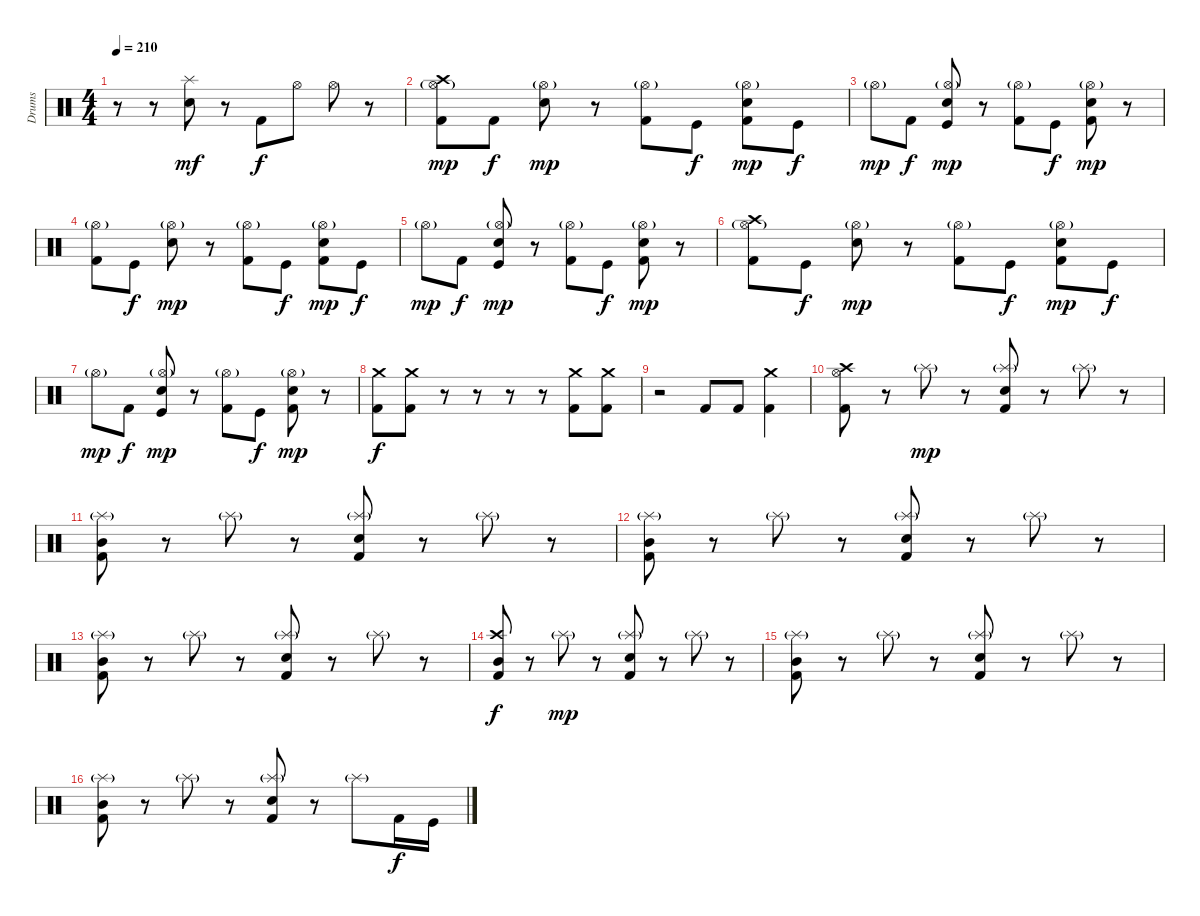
\track ("Drums" "Drums") {instrument percussion}
\staff {score}
\articulation defaults
\ts (4 4)
\tempo 210
\clef neutral
\ks c
r.8{dy f} r.8 ("Electric Snare (hit)" "Splash (hit)").8{dy mf} r.8 "Kick (hit) 2".8{dy f} "Hi-Hat (open)".8 "Hi-Hat (open)".8 r.8 |
("Kick (hit) 2" "Crash high (hit)" "Hi-Hat (open)"{g}).8{dy mp} "Kick (hit) 2".8{dy f} ("Electric Snare (hit)" "Hi-Hat (open)"{g}).8{dy mp} r.8 ("Kick (hit) 2" "Hi-Hat (open)"{g}).8 "Kick (hit)".8{dy f} ("Kick (hit) 2" "Electric Snare (hit)" "Hi-Hat (open)"{g}).8{dy mp} "Kick (hit)".8{dy f} |
"Hi-Hat (open)"{g}.8{dy mp} "Kick (hit) 2".8{dy f} ("Kick (hit)" "Electric Snare (hit)" "Hi-Hat (open)"{g}).8{dy mp} r.8 ("Kick (hit) 2" "Hi-Hat (open)"{g}).8 "Kick (hit)".8{dy f} ("Kick (hit) 2" "Electric Snare (hit)" "Hi-Hat (open)"{g}).8{dy mp} r.8 |
("Kick (hit) 2" "Hi-Hat (open)"{g}).8 "Kick (hit)".8{dy f} ("Electric Snare (hit)" "Hi-Hat (open)"{g}).8{dy mp} r.8 ("Kick (hit) 2" "Hi-Hat (open)"{g}).8 "Kick (hit)".8{dy f} ("Kick (hit) 2" "Electric Snare (hit)" "Hi-Hat (open)"{g}).8{dy mp} "Kick (hit)".8{dy f} |
"Hi-Hat (open)"{g}.8{dy mp} "Kick (hit) 2".8{dy f} ("Kick (hit)" "Electric Snare (hit)" "Hi-Hat (open)"{g}).8{dy mp} r.8 ("Kick (hit) 2" "Hi-Hat (open)"{g}).8 "Kick (hit)".8{dy f} ("Kick (hit) 2" "Electric Snare (hit)" "Hi-Hat (open)"{g}).8{dy mp} r.8 |
("Kick (hit) 2" "Crash high (hit)" "Hi-Hat (open)"{g}).8 "Kick (hit)".8{dy f} ("Electric Snare (hit)" "Hi-Hat (open)"{g}).8{dy mp} r.8 ("Kick (hit) 2" "Hi-Hat (open)"{g}).8 "Kick (hit)".8{dy f} ("Kick (hit) 2" "Electric Snare (hit)" "Hi-Hat (open)"{g}).8{dy mp} "Kick (hit)".8{dy f} |
"Hi-Hat (open)"{g}.8{dy mp} "Kick (hit) 2".8{dy f} ("Kick (hit)" "Electric Snare (hit)" "Hi-Hat (open)"{g}).8{dy mp} r.8 ("Kick (hit) 2" "Hi-Hat (open)"{g}).8 "Kick (hit)".8{dy f} ("Kick (hit) 2" "Electric Snare (hit)" "Hi-Hat (open)"{g}).8{dy mp} r.8 |
("Kick (hit) 2" "Crash medium (hit)").8{dy f} ("Kick (hit) 2" "Crash medium (hit)").8 r.8 r.8 r.8 r.8 ("Kick (hit) 2" "Crash medium (hit)").8 ("Kick (hit) 2" "Crash medium (hit)").8 |
r.2 "Kick (hit) 2".8 "Kick (hit) 2".8 ("Crash medium (hit)" "Kick (hit) 2").4 |
("Kick (hit) 2" "Hi-Hat (open)" "Crash high (hit)").8 r.8 "Splash (hit)"{g}.8{dy mp} r.8 ("Kick (hit) 2" "Electric Snare (hit)" "Splash (hit)"{g}).8 r.8 "Splash (hit)"{g}.8 r.8 |
("Kick (hit) 2" "Mid Tom (hit)" "Splash (hit)"{g}).8 r.8 "Splash (hit)"{g}.8 r.8 ("Kick (hit) 2" "Electric Snare (hit)" "Splash (hit)"{g}).8 r.8 "Splash (hit)"{g}.8 r.8 |
("Kick (hit) 2" "Mid Tom (hit)" "Splash (hit)"{g}).8 r.8 "Splash (hit)"{g}.8 r.8 ("Kick (hit) 2" "Electric Snare (hit)" "Splash (hit)"{g}).8 r.8 "Splash (hit)"{g}.8 r.8 |
("Kick (hit) 2" "Mid Tom (hit)" "Splash (hit)"{g}).8 r.8 "Splash (hit)"{g}.8 r.8 ("Kick (hit) 2" "Electric Snare (hit)" "Splash (hit)"{g}).8 r.8 "Splash (hit)"{g}.8 r.8 |
("Kick (hit) 2" "Mid Tom (hit)" "Crash high (hit)").8{dy f} r.8 "Splash (hit)"{g}.8{dy mp} r.8 ("Kick (hit) 2" "Electric Snare (hit)" "Splash (hit)"{g}).8 r.8 "Splash (hit)"{g}.8 r.8 |
("Kick (hit) 2" "Mid Tom (hit)" "Splash (hit)"{g}).8 r.8 "Splash (hit)"{g}.8 r.8 ("Kick (hit) 2" "Electric Snare (hit)" "Splash (hit)"{g}).8 r.8 "Splash (hit)"{g}.8 r.8 |
("Kick (hit) 2" "Mid Tom (hit)" "Splash (hit)"{g}).8 r.8 "Splash (hit)"{g}.8 r.8 ("Kick (hit) 2" "Electric Snare (hit)" "Splash (hit)"{g}).8 r.8 "Splash (hit)"{g}.8 "Kick (hit) 2".16{dy f} "Kick (hit)".16
